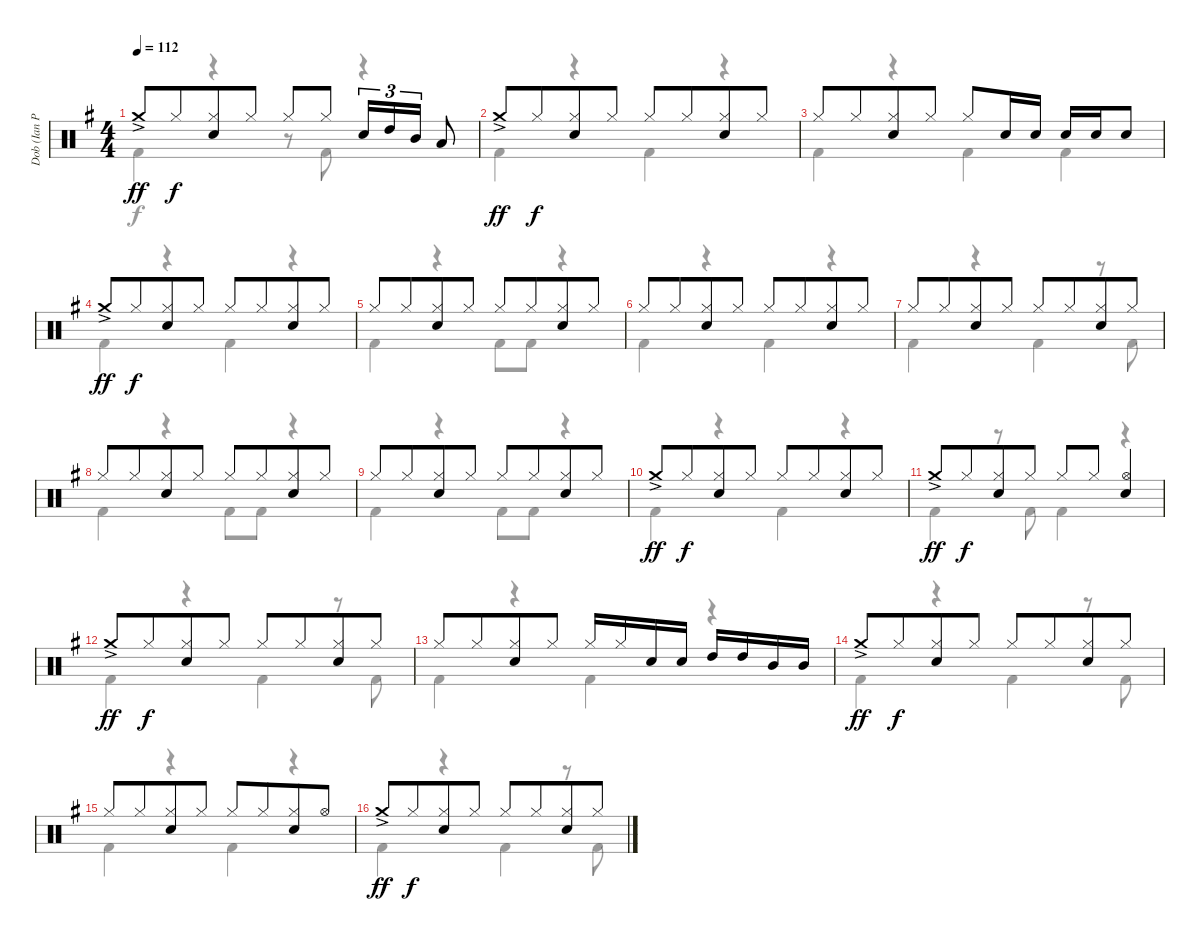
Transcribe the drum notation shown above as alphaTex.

\track ("Dob (Ian Paice)" "Dob (Ian P") {instrument percussion}
\staff {score}
\articulation defaults
\voice
\ts (4 4)
\tempo 112
\clef neutral
\ks g "Crash medium (hit)"{ac}.8{dy ff} "Hi-Hat (closed)".8{dy f beam merge}
("Hi-Hat (closed)" "Electric Snare (hit)").8 "Hi-Hat (closed)".8 "Hi-Hat (closed)".8 "Hi-Hat (closed)".8 "Electric Snare (hit)".16{tu (3 2)} "High Tom (hit)".16{tu (3 2)} "Mid Tom (hit)".16{tu (3 2)} "Low Tom (hit)".8 |
"Crash medium (hit)"{ac}.8{dy ff} "Hi-Hat (closed)".8{dy f beam merge} ("Hi-Hat (closed)" "Electric Snare (hit)").8 "Hi-Hat (closed)".8 "Hi-Hat (closed)".8 "Hi-Hat (closed)".8{beam merge} ("Hi-Hat (closed)" "Electric Snare (hit)").8 "Hi-Hat (closed)".8 |
"Hi-Hat (closed)".8 "Hi-Hat (closed)".8{beam merge} ("Hi-Hat (closed)" "Electric Snare (hit)").8 "Hi-Hat (closed)".8 "Hi-Hat (closed)".8 "Electric Snare (hit)".16 "Electric Snare (hit)".16 "Electric Snare (hit)".16 "Electric Snare (hit)".16 "Electric Snare (hit)".8 |
"Crash medium (hit)"{ac}.8{dy ff} "Hi-Hat (closed)".8{dy f beam merge} ("Hi-Hat (closed)" "Electric Snare (hit)").8 "Hi-Hat (closed)".8 "Hi-Hat (closed)".8 "Hi-Hat (closed)".8{beam merge} ("Hi-Hat (closed)" "Electric Snare (hit)").8 "Hi-Hat (closed)".8 |
"Hi-Hat (closed)".8 "Hi-Hat (closed)".8{beam merge} ("Hi-Hat (closed)" "Electric Snare (hit)").8 "Hi-Hat (closed)".8 "Hi-Hat (closed)".8 "Hi-Hat (closed)".8{beam merge} ("Hi-Hat (closed)" "Electric Snare (hit)").8 "Hi-Hat (closed)".8 |
"Hi-Hat (closed)".8 "Hi-Hat (closed)".8{beam merge} ("Hi-Hat (closed)" "Electric Snare (hit)").8 "Hi-Hat (closed)".8 "Hi-Hat (closed)".8 "Hi-Hat (closed)".8{beam merge} ("Hi-Hat (closed)" "Electric Snare (hit)").8 "Hi-Hat (closed)".8 |
"Hi-Hat (closed)".8 "Hi-Hat (closed)".8{beam merge} ("Hi-Hat (closed)" "Electric Snare (hit)").8 "Hi-Hat (closed)".8 "Hi-Hat (closed)".8 "Hi-Hat (closed)".8{beam merge} ("Hi-Hat (closed)" "Electric Snare (hit)").8 "Hi-Hat (closed)".8 |
"Hi-Hat (closed)".8 "Hi-Hat (closed)".8{beam merge} ("Hi-Hat (closed)" "Electric Snare (hit)").8 "Hi-Hat (closed)".8 "Hi-Hat (closed)".8 "Hi-Hat (closed)".8{beam merge} ("Hi-Hat (closed)" "Electric Snare (hit)").8 "Hi-Hat (closed)".8 |
"Hi-Hat (closed)".8 "Hi-Hat (closed)".8{beam merge} ("Hi-Hat (closed)" "Electric Snare (hit)").8 "Hi-Hat (closed)".8 "Hi-Hat (closed)".8 "Hi-Hat (closed)".8{beam merge} ("Hi-Hat (closed)" "Electric Snare (hit)").8 "Hi-Hat (closed)".8 |
"Crash medium (hit)"{ac}.8{dy ff} "Hi-Hat (closed)".8{dy f beam merge} ("Hi-Hat (closed)" "Electric Snare (hit)").8 "Hi-Hat (closed)".8 "Hi-Hat (closed)".8 "Hi-Hat (closed)".8{beam merge} ("Hi-Hat (closed)" "Electric Snare (hit)").8 "Hi-Hat (closed)".8 |
"Crash medium (hit)"{ac}.8{dy ff} "Hi-Hat (closed)".8{dy f beam merge} ("Hi-Hat (closed)" "Electric Snare (hit)").8 "Hi-Hat (closed)".8 "Hi-Hat (closed)".8 "Hi-Hat (closed)".8 ("Hi-Hat (open)" "Electric Snare (hit)").4 |
"Crash medium (hit)"{ac}.8{dy ff} "Hi-Hat (closed)".8{dy f beam merge} ("Hi-Hat (closed)" "Electric Snare (hit)").8 "Hi-Hat (closed)".8 "Hi-Hat (closed)".8 "Hi-Hat (closed)".8{beam merge} ("Hi-Hat (closed)" "Electric Snare (hit)").8 "Hi-Hat (closed)".8 |
"Hi-Hat (closed)".8 "Hi-Hat (closed)".8{beam merge} ("Hi-Hat (closed)" "Electric Snare (hit)").8 "Hi-Hat (closed)".8 "Hi-Hat (closed)".16 "Hi-Hat (closed)".16 "Electric Snare (hit)".16 "Electric Snare (hit)".16 "High Tom (hit)".16 "High Tom (hit)".16 "Mid Tom (hit)".16 "Mid Tom (hit)".16 |
"Crash medium (hit)"{ac}.8{dy ff} "Hi-Hat (closed)".8{dy f beam merge} ("Hi-Hat (closed)" "Electric Snare (hit)").8 "Hi-Hat (closed)".8 "Hi-Hat (closed)".8 "Hi-Hat (closed)".8{beam merge} ("Hi-Hat (closed)" "Electric Snare (hit)").8 "Hi-Hat (closed)".8 |
"Hi-Hat (closed)".8 "Hi-Hat (closed)".8{beam merge} ("Hi-Hat (closed)" "Electric Snare (hit)").8 "Hi-Hat (closed)".8 "Hi-Hat (closed)".8 "Hi-Hat (closed)".8{beam merge} ("Hi-Hat (closed)" "Electric Snare (hit)").8 "Hi-Hat (open)".8 |
"Crash medium (hit)"{ac}.8{dy ff} "Hi-Hat (closed)".8{dy f beam merge} ("Hi-Hat (closed)" "Electric Snare (hit)").8 "Hi-Hat (closed)".8 "Hi-Hat (closed)".8 "Hi-Hat (closed)".8{beam merge} ("Hi-Hat (closed)" "Electric Snare (hit)").8 "Hi-Hat (closed)".8
\voice
\clef neutral
\ottava regular
\simile none
\ks g "Kick (hit) 2".4{dy f}
r.4 r.8 "Kick (hit) 2".8 r.4 |
"Kick (hit) 2".4 r.4 "Kick (hit) 2".4 r.4 |
"Kick (hit) 2".4 r.4 "Kick (hit) 2".4 "Kick (hit) 2".4 |
"Kick (hit) 2".4 r.4 "Kick (hit) 2".4 r.4 |
"Kick (hit) 2".4 r.4 "Kick (hit) 2".8 "Kick (hit) 2".8 r.4 |
"Kick (hit) 2".4 r.4 "Kick (hit) 2".4 r.4 |
"Kick (hit) 2".4 r.4 "Kick (hit) 2".4 r.8 "Kick (hit) 2".8 |
"Kick (hit) 2".4 r.4 "Kick (hit) 2".8 "Kick (hit) 2".8 r.4 |
"Kick (hit) 2".4 r.4 "Kick (hit) 2".8 "Kick (hit) 2".8 r.4 |
"Kick (hit) 2".4 r.4 "Kick (hit) 2".4 r.4 |
"Kick (hit) 2".4 r.8 "Kick (hit) 2".8 "Kick (hit) 2".4 r.4 |
"Kick (hit) 2".4 r.4 "Kick (hit) 2".4 r.8 "Kick (hit) 2".8 |
"Kick (hit) 2".4 r.4 "Kick (hit) 2".4 r.4 |
"Kick (hit) 2".4 r.4 "Kick (hit) 2".4 r.8 "Kick (hit) 2".8 |
"Kick (hit) 2".4 r.4 "Kick (hit) 2".4 r.4 |
"Kick (hit) 2".4 r.4 "Kick (hit) 2".4 r.8 "Kick (hit) 2".8
